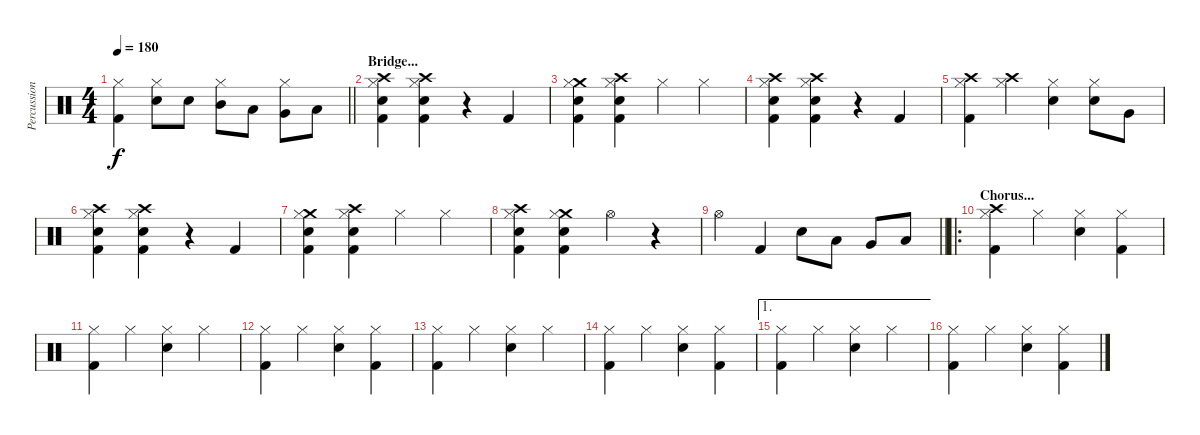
\track ("Percussion" "Percussion") {instrument percussion}
\staff {score}
\articulation defaults
\ts (4 4)
\tempo 180
\clef neutral
\barLineRight lightlight
\ks c
("Kick (hit) 2" "Hi-Hat (closed)").4{dy f} ("Snare (hit) 2" "Hi-Hat (closed)").8 "Snare (hit) 2".8 ("Mid Tom (hit)" "Hi-Hat (closed)").8 "Low Tom (hit)".8 ("Very Low Tom (hit)" "Hi-Hat (closed)").8 "Low Floor Tom (hit)".8 |
\section ("" "Bridge...")
("Kick (hit) 2" "Snare (hit) 2" "Crash high (hit)" "Hi-Hat (closed)").4 ("Kick (hit) 2" "Snare (hit) 2" "Crash high (hit)" "Hi-Hat (closed)").4 r.4 "Kick (hit) 2".4 |
("Kick (hit) 2" "Snare (hit) 2" "Crash medium (hit)" "Hi-Hat (closed)").4 ("Kick (hit) 2" "Snare (hit) 2" "Crash high (hit)" "Hi-Hat (closed)").4 "Hi-Hat (closed)".4 "Hi-Hat (closed)".4 |
("Kick (hit) 2" "Snare (hit) 2" "Crash high (hit)" "Hi-Hat (closed)").4 ("Kick (hit) 2" "Snare (hit) 2" "Crash high (hit)" "Hi-Hat (closed)").4 r.4 "Kick (hit) 2".4 |
("Kick (hit) 2" "Crash high (hit)" "Hi-Hat (closed)").4 ("Crash high (hit)" "Hi-Hat (closed)").4 ("Snare (hit) 2" "Hi-Hat (closed)").4 ("Snare (hit) 2" "Hi-Hat (closed)").8 "Very Low Tom (hit)".8 |
("Kick (hit) 2" "Snare (hit) 2" "Crash high (hit)" "Hi-Hat (closed)").4 ("Kick (hit) 2" "Snare (hit) 2" "Crash high (hit)" "Hi-Hat (closed)").4 r.4 "Kick (hit) 2".4 |
("Kick (hit) 2" "Snare (hit) 2" "Crash medium (hit)" "Hi-Hat (closed)").4 ("Kick (hit) 2" "Snare (hit) 2" "Crash high (hit)" "Hi-Hat (closed)").4 "Hi-Hat (closed)".4 "Hi-Hat (closed)".4 |
("Kick (hit) 2" "Snare (hit) 2" "Crash high (hit)" "Hi-Hat (closed)").4 ("Kick (hit) 2" "Snare (hit) 2" "Crash medium (hit)" "Hi-Hat (closed)").4 "Hi-Hat (open)".4 r.4 |
\barLineRight lightlight "Hi-Hat (open)".4 "Kick (hit) 2".4 "Snare (hit) 2".8 "Low Tom (hit)".8 "Very Low Tom (hit)".8 "Low Floor Tom (hit)".8
|
\ro
\section ("" "Chorus...")
("Kick (hit) 2" "Crash high (hit)" "Hi-Hat (closed)").4 "Hi-Hat (closed)".4 ("Snare (hit) 2" "Hi-Hat (closed)").4 ("Kick (hit) 2" "Hi-Hat (closed)").4 |
("Kick (hit) 2" "Hi-Hat (closed)").4 "Hi-Hat (closed)".4 ("Snare (hit) 2" "Hi-Hat (closed)").4 "Hi-Hat (closed)".4 |
("Kick (hit) 2" "Hi-Hat (closed)").4 "Hi-Hat (closed)".4 ("Snare (hit) 2" "Hi-Hat (closed)").4 ("Kick (hit) 2" "Hi-Hat (closed)").4 |
("Kick (hit) 2" "Hi-Hat (closed)").4 "Hi-Hat (closed)".4 ("Snare (hit) 2" "Hi-Hat (closed)").4 "Hi-Hat (closed)".4 |
("Kick (hit) 2" "Hi-Hat (closed)").4 "Hi-Hat (closed)".4 ("Snare (hit) 2" "Hi-Hat (closed)").4 ("Kick (hit) 2" "Hi-Hat (closed)").4 |
\ae 1
("Kick (hit) 2" "Hi-Hat (closed)").4 "Hi-Hat (closed)".4 ("Snare (hit) 2" "Hi-Hat (closed)").4 "Hi-Hat (closed)".4 |
("Kick (hit) 2" "Hi-Hat (closed)").4 "Hi-Hat (closed)".4 ("Snare (hit) 2" "Hi-Hat (closed)").4 ("Kick (hit) 2" "Hi-Hat (closed)").4
